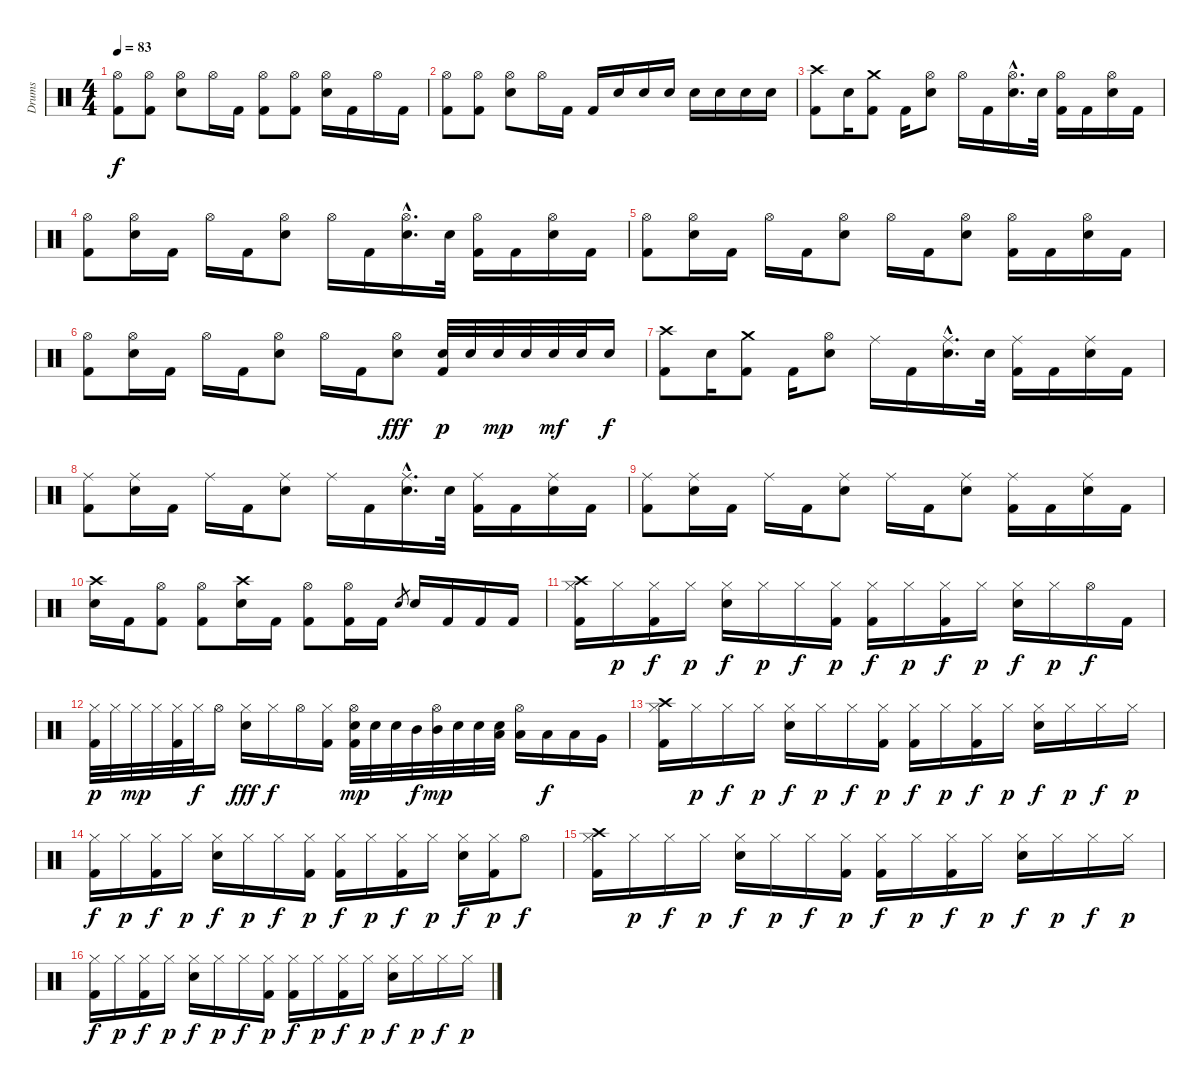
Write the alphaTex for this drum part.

\track ("Drums" "Drums") {instrument percussion}
\staff {score}
\articulation defaults
\ts (4 4)
\tempo 83
\clef neutral
\ks c
("Hi-Hat (open)" "Kick (hit) 2").8{dy f} ("Hi-Hat (open)" "Kick (hit) 2").8 ("Hi-Hat (open)" "Electric Snare (hit)").8 "Hi-Hat (open)".16 "Kick (hit) 2".16 ("Hi-Hat (open)" "Kick (hit) 2").8 ("Hi-Hat (open)" "Kick (hit) 2").8 ("Hi-Hat (open)" "Electric Snare (hit)").16 "Kick (hit) 2".16 "Hi-Hat (open)".16 "Kick (hit) 2".16 |
("Hi-Hat (open)" "Kick (hit) 2").8 ("Hi-Hat (open)" "Kick (hit) 2").8 ("Hi-Hat (open)" "Electric Snare (hit)").8 "Hi-Hat (open)".16 "Kick (hit) 2".16 "Kick (hit) 2".16 "Electric Snare (hit)".16 "Electric Snare (hit)".16 "Electric Snare (hit)".16 "Electric Snare (hit)".16 "Electric Snare (hit)".16 "Electric Snare (hit)".16 "Electric Snare (hit)".16 |
("Crash high (hit)" "Kick (hit) 2").8 "Electric Snare (hit)".16 ("Crash medium (hit)" "Kick (hit) 2").8 "Kick (hit) 2".16 ("Hi-Hat (open)" "Electric Snare (hit)").8 "Hi-Hat (open)".16 "Kick (hit) 2".16 ("Hi-Hat (open)"{hac} "Electric Snare (hit)"{hac}).16{d} "Electric Snare (hit)".32 ("Hi-Hat (open)" "Kick (hit) 2").16 "Kick (hit) 2".16 ("Hi-Hat (open)" "Electric Snare (hit)").16 "Kick (hit) 2".16 |
("Hi-Hat (open)" "Kick (hit) 2").8 ("Hi-Hat (open)" "Electric Snare (hit)").16 "Kick (hit) 2".16 "Hi-Hat (open)".16 "Kick (hit) 2".16 ("Hi-Hat (open)" "Electric Snare (hit)").8 "Hi-Hat (open)".16 "Kick (hit) 2".16 ("Hi-Hat (open)"{hac} "Electric Snare (hit)"{hac}).16{d} "Electric Snare (hit)".32 ("Hi-Hat (open)" "Kick (hit) 2").16 "Kick (hit) 2".16 ("Hi-Hat (open)" "Electric Snare (hit)").16 "Kick (hit) 2".16 |
("Hi-Hat (open)" "Kick (hit) 2").8 ("Hi-Hat (open)" "Electric Snare (hit)").16 "Kick (hit) 2".16 "Hi-Hat (open)".16 "Kick (hit) 2".16 ("Hi-Hat (open)" "Electric Snare (hit)").8 "Hi-Hat (open)".16 "Kick (hit) 2".16 ("Hi-Hat (open)" "Electric Snare (hit)").8 ("Hi-Hat (open)" "Kick (hit) 2").16 "Kick (hit) 2".16 ("Hi-Hat (open)" "Electric Snare (hit)").16 "Kick (hit) 2".16 |
("Hi-Hat (open)" "Kick (hit) 2").8 ("Hi-Hat (open)" "Electric Snare (hit)").16 "Kick (hit) 2".16 "Hi-Hat (open)".16 "Kick (hit) 2".16 ("Hi-Hat (open)" "Electric Snare (hit)").8 "Hi-Hat (open)".16 "Kick (hit) 2".16 ("Hi-Hat (open)" "Electric Snare (hit)").8{dy fff} ("Electric Snare (hit)" "Kick (hit) 2").32{dy p} "Electric Snare (hit)".32 "Electric Snare (hit)".32{dy mp} "Electric Snare (hit)".32 "Electric Snare (hit)".32{dy mf} "Electric Snare (hit)".32 "Electric Snare (hit)".16{dy f} |
("Crash high (hit)" "Kick (hit) 2").8 "Electric Snare (hit)".16 ("Crash medium (hit)" "Kick (hit) 2").8 "Kick (hit) 2".16 ("Hi-Hat (open)" "Electric Snare (hit)").8 "Ride (middle)".16 "Kick (hit) 2".16 ("Ride (middle)"{hac} "Electric Snare (hit)"{hac}).16{d} "Electric Snare (hit)".32 ("Ride (middle)" "Kick (hit) 2").16 "Kick (hit) 2".16 ("Ride (middle)" "Electric Snare (hit)").16 "Kick (hit) 2".16 |
("Ride (middle)" "Kick (hit) 2").8 ("Ride (middle)" "Electric Snare (hit)").16 "Kick (hit) 2".16 "Ride (middle)".16 "Kick (hit) 2".16 ("Ride (middle)" "Electric Snare (hit)").8 "Ride (middle)".16 "Kick (hit) 2".16 ("Ride (middle)"{hac} "Electric Snare (hit)"{hac}).16{d} "Electric Snare (hit)".32 ("Ride (middle)" "Kick (hit) 2").16 "Kick (hit) 2".16 ("Ride (middle)" "Electric Snare (hit)").16 "Kick (hit) 2".16 |
("Ride (middle)" "Kick (hit) 2").8 ("Ride (middle)" "Electric Snare (hit)").16 "Kick (hit) 2".16 "Ride (middle)".16 "Kick (hit) 2".16 ("Ride (middle)" "Electric Snare (hit)").8 "Ride (middle)".16 "Kick (hit) 2".16 ("Ride (middle)" "Electric Snare (hit)").8 ("Ride (middle)" "Kick (hit) 2").16 "Kick (hit) 2".16 ("Ride (middle)" "Electric Snare (hit)").16 "Kick (hit) 2".16 |
("Crash high (hit)" "Electric Snare (hit)").16 "Kick (hit) 2".16 ("Hi-Hat (open)" "Kick (hit) 2").8 ("Hi-Hat (open)" "Kick (hit) 2").8 ("Crash high (hit)" "Electric Snare (hit)").16 "Kick (hit) 2".16 ("Hi-Hat (open)" "Kick (hit) 2").8 ("Hi-Hat (open)" "Kick (hit) 2").16 "Kick (hit) 2".16 "Electric Snare (hit)".8{gr} "Electric Snare (hit)".16 "Kick (hit) 2".16 "Kick (hit) 2".16 "Kick (hit) 2".16 |
("Crash high (hit)" "Hi-Hat (closed)" "Kick (hit) 2").16 "Hi-Hat (closed)".16{dy p} ("Hi-Hat (closed)" "Kick (hit) 2").16{dy f} "Hi-Hat (closed)".16{dy p} ("Hi-Hat (closed)" "Electric Snare (hit)").16{dy f} "Hi-Hat (closed)".16{dy p} "Hi-Hat (closed)".16{dy f} ("Hi-Hat (closed)" "Kick (hit) 2").16{dy p} ("Hi-Hat (closed)" "Kick (hit) 2").16{dy f} "Hi-Hat (closed)".16{dy p} ("Hi-Hat (closed)" "Kick (hit) 2").16{dy f} "Hi-Hat (closed)".16{dy p} ("Hi-Hat (closed)" "Electric Snare (hit)").16{dy f} "Hi-Hat (closed)".16{dy p} "Hi-Hat (open)".16{dy f} "Kick (hit) 2".16 |
("Hi-Hat (closed)" "Kick (hit) 2").32{dy p} "Hi-Hat (closed)".32 "Hi-Hat (closed)".32{dy mp} "Hi-Hat (closed)".32 ("Hi-Hat (closed)" "Kick (hit) 2").32 "Hi-Hat (closed)".32{dy f} "Hi-Hat (open)".16 ("Hi-Hat (closed)" "Electric Snare (hit)").16{dy fff} "Hi-Hat (closed)".16{dy f} "Hi-Hat (open)".16 ("Hi-Hat (closed)" "Kick (hit) 2").16 ("Hi-Hat (open)" "Electric Snare (hit)" "Kick (hit) 2").32{dy mp} "Electric Snare (hit)".32 "Electric Snare (hit)".32 "Mid Tom (hit)".32{dy f} ("Hi-Hat (open)" "Mid Tom (hit)").32{dy mp} "Electric Snare (hit)".32 "Electric Snare (hit)".32 ("Electric Snare (hit)" "Low Tom (hit)").32 ("Hi-Hat (open)" "Low Tom (hit)").16 "Low Tom (hit)".16{dy f} "Low Tom (hit)".16 "Very Low Tom (hit)".16 |
("Crash high (hit)" "Hi-Hat (closed)" "Kick (hit) 2").16 "Hi-Hat (closed)".16{dy p} "Hi-Hat (closed)".16{dy f} "Hi-Hat (closed)".16{dy p} ("Hi-Hat (closed)" "Electric Snare (hit)").16{dy f} "Hi-Hat (closed)".16{dy p} "Hi-Hat (closed)".16{dy f} ("Hi-Hat (closed)" "Kick (hit) 2").16{dy p} ("Hi-Hat (closed)" "Kick (hit) 2").16{dy f} "Hi-Hat (closed)".16{dy p} ("Hi-Hat (closed)" "Kick (hit) 2").16{dy f} "Hi-Hat (closed)".16{dy p} ("Hi-Hat (closed)" "Electric Snare (hit)").16{dy f} "Hi-Hat (closed)".16{dy p} "Hi-Hat (closed)".16{dy f} "Hi-Hat (closed)".16{dy p} |
("Hi-Hat (closed)" "Kick (hit) 2").16{dy f} "Hi-Hat (closed)".16{dy p} ("Hi-Hat (closed)" "Kick (hit) 2").16{dy f} "Hi-Hat (closed)".16{dy p} ("Hi-Hat (closed)" "Electric Snare (hit)").16{dy f} "Hi-Hat (closed)".16{dy p} "Hi-Hat (closed)".16{dy f} ("Hi-Hat (closed)" "Kick (hit) 2").16{dy p} ("Hi-Hat (closed)" "Kick (hit) 2").16{dy f} "Hi-Hat (closed)".16{dy p} ("Hi-Hat (closed)" "Kick (hit) 2").16{dy f} "Hi-Hat (closed)".16{dy p} ("Hi-Hat (closed)" "Electric Snare (hit)").16{dy f} ("Hi-Hat (closed)" "Kick (hit) 2").16{dy p} "Hi-Hat (open)".8{dy f} |
("Crash high (hit)" "Hi-Hat (closed)" "Kick (hit) 2").16 "Hi-Hat (closed)".16{dy p} "Hi-Hat (closed)".16{dy f} "Hi-Hat (closed)".16{dy p} ("Hi-Hat (closed)" "Electric Snare (hit)").16{dy f} "Hi-Hat (closed)".16{dy p} "Hi-Hat (closed)".16{dy f} ("Hi-Hat (closed)" "Kick (hit) 2").16{dy p} ("Hi-Hat (closed)" "Kick (hit) 2").16{dy f} "Hi-Hat (closed)".16{dy p} ("Hi-Hat (closed)" "Kick (hit) 2").16{dy f} "Hi-Hat (closed)".16{dy p} ("Hi-Hat (closed)" "Electric Snare (hit)").16{dy f} "Hi-Hat (closed)".16{dy p} "Hi-Hat (closed)".16{dy f} "Hi-Hat (closed)".16{dy p} |
("Hi-Hat (closed)" "Kick (hit) 2").16{dy f} "Hi-Hat (closed)".16{dy p} ("Hi-Hat (closed)" "Kick (hit) 2").16{dy f} "Hi-Hat (closed)".16{dy p} ("Hi-Hat (closed)" "Electric Snare (hit)").16{dy f} "Hi-Hat (closed)".16{dy p} "Hi-Hat (closed)".16{dy f} ("Hi-Hat (closed)" "Kick (hit) 2").16{dy p} ("Hi-Hat (closed)" "Kick (hit) 2").16{dy f} "Hi-Hat (closed)".16{dy p} ("Hi-Hat (closed)" "Kick (hit) 2").16{dy f} "Hi-Hat (closed)".16{dy p} ("Hi-Hat (closed)" "Electric Snare (hit)").16{dy f} "Hi-Hat (closed)".16{dy p} "Hi-Hat (closed)".16{dy f} "Hi-Hat (closed)".16{dy p}
